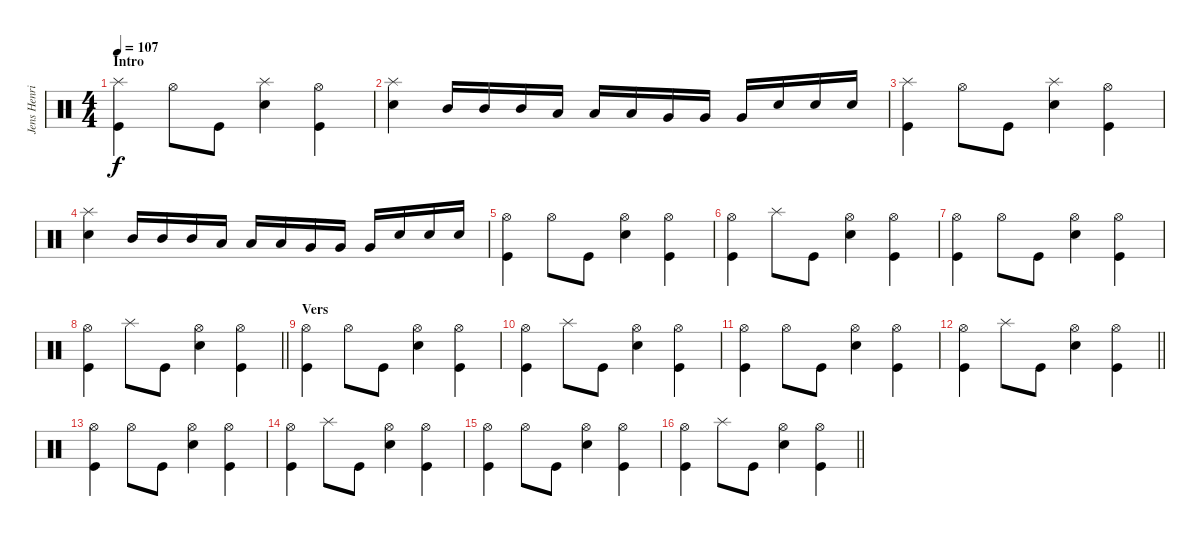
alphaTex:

\track ("Jens Henriksson" "Jens Henri") {instrument percussion}
\staff {score}
\articulation defaults
\ts (4 4)
\section ("" "Intro")
\tempo 107
\clef neutral
\ks aminor
("Splash (hit)" "Kick (hit)").4{dy f} "Hi-Hat (open)".8 "Kick (hit)".8 ("Splash (hit)" "Snare (hit) 2").4 ("Hi-Hat (open)" "Kick (hit)").4 |
("Splash (hit)" "Snare (hit) 2").4 "Mid Tom (hit)".16 "Mid Tom (hit)".16 "Mid Tom (hit)".16 "Low Tom (hit)".16 "Low Tom (hit)".16 "Low Tom (hit)".16 "Very Low Tom (hit)".16 "Very Low Tom (hit)".16 "Very Low Tom (hit)".16 "Snare (hit) 2".16 "Snare (hit) 2".16 "Snare (hit) 2".16 |
("Splash (hit)" "Kick (hit)").4 "Hi-Hat (open)".8 "Kick (hit)".8 ("Splash (hit)" "Snare (hit) 2").4 ("Hi-Hat (open)" "Kick (hit)").4 |
("Splash (hit)" "Snare (hit) 2").4 "Mid Tom (hit)".16 "Mid Tom (hit)".16 "Mid Tom (hit)".16 "Low Tom (hit)".16 "Low Tom (hit)".16 "Low Tom (hit)".16 "Very Low Tom (hit)".16 "Very Low Tom (hit)".16 "Very Low Tom (hit)".16 "Snare (hit) 2".16 "Snare (hit) 2".16 "Snare (hit) 2".16 |
("Hi-Hat (open)" "Kick (hit)").4 "Hi-Hat (open)".8 "Kick (hit)".8 ("Hi-Hat (open)" "Snare (hit) 2").4 ("Hi-Hat (open)" "Kick (hit)").4 |
("Hi-Hat (open)" "Kick (hit)").4 "Splash (hit)".8 "Kick (hit)".8 ("Hi-Hat (open)" "Snare (hit) 2").4 ("Hi-Hat (open)" "Kick (hit)").4 |
("Hi-Hat (open)" "Kick (hit)").4 "Hi-Hat (open)".8 "Kick (hit)".8 ("Hi-Hat (open)" "Snare (hit) 2").4 ("Hi-Hat (open)" "Kick (hit)").4 |
\barLineRight lightlight
("Hi-Hat (open)" "Kick (hit)").4 "Splash (hit)".8 "Kick (hit)".8 ("Hi-Hat (open)" "Snare (hit) 2").4 ("Hi-Hat (open)" "Kick (hit)").4 |
\section ("" "Vers")
("Hi-Hat (open)" "Kick (hit)").4 "Hi-Hat (open)".8 "Kick (hit)".8 ("Hi-Hat (open)" "Snare (hit) 2").4 ("Hi-Hat (open)" "Kick (hit)").4 |
("Hi-Hat (open)" "Kick (hit)").4 "Splash (hit)".8 "Kick (hit)".8 ("Hi-Hat (open)" "Snare (hit) 2").4 ("Hi-Hat (open)" "Kick (hit)").4 |
("Hi-Hat (open)" "Kick (hit)").4 "Hi-Hat (open)".8 "Kick (hit)".8 ("Hi-Hat (open)" "Snare (hit) 2").4 ("Hi-Hat (open)" "Kick (hit)").4 |
\barLineRight lightlight
("Hi-Hat (open)" "Kick (hit)").4 "Splash (hit)".8 "Kick (hit)".8 ("Hi-Hat (open)" "Snare (hit) 2").4 ("Hi-Hat (open)" "Kick (hit)").4 |
("Hi-Hat (open)" "Kick (hit)").4 "Hi-Hat (open)".8 "Kick (hit)".8 ("Hi-Hat (open)" "Snare (hit) 2").4 ("Hi-Hat (open)" "Kick (hit)").4 |
("Hi-Hat (open)" "Kick (hit)").4 "Splash (hit)".8 "Kick (hit)".8 ("Hi-Hat (open)" "Snare (hit) 2").4 ("Hi-Hat (open)" "Kick (hit)").4 |
("Hi-Hat (open)" "Kick (hit)").4 "Hi-Hat (open)".8 "Kick (hit)".8 ("Hi-Hat (open)" "Snare (hit) 2").4 ("Hi-Hat (open)" "Kick (hit)").4 |
\barLineRight lightlight
("Hi-Hat (open)" "Kick (hit)").4 "Splash (hit)".8 "Kick (hit)".8 ("Hi-Hat (open)" "Snare (hit) 2").4 ("Hi-Hat (open)" "Kick (hit)").4
